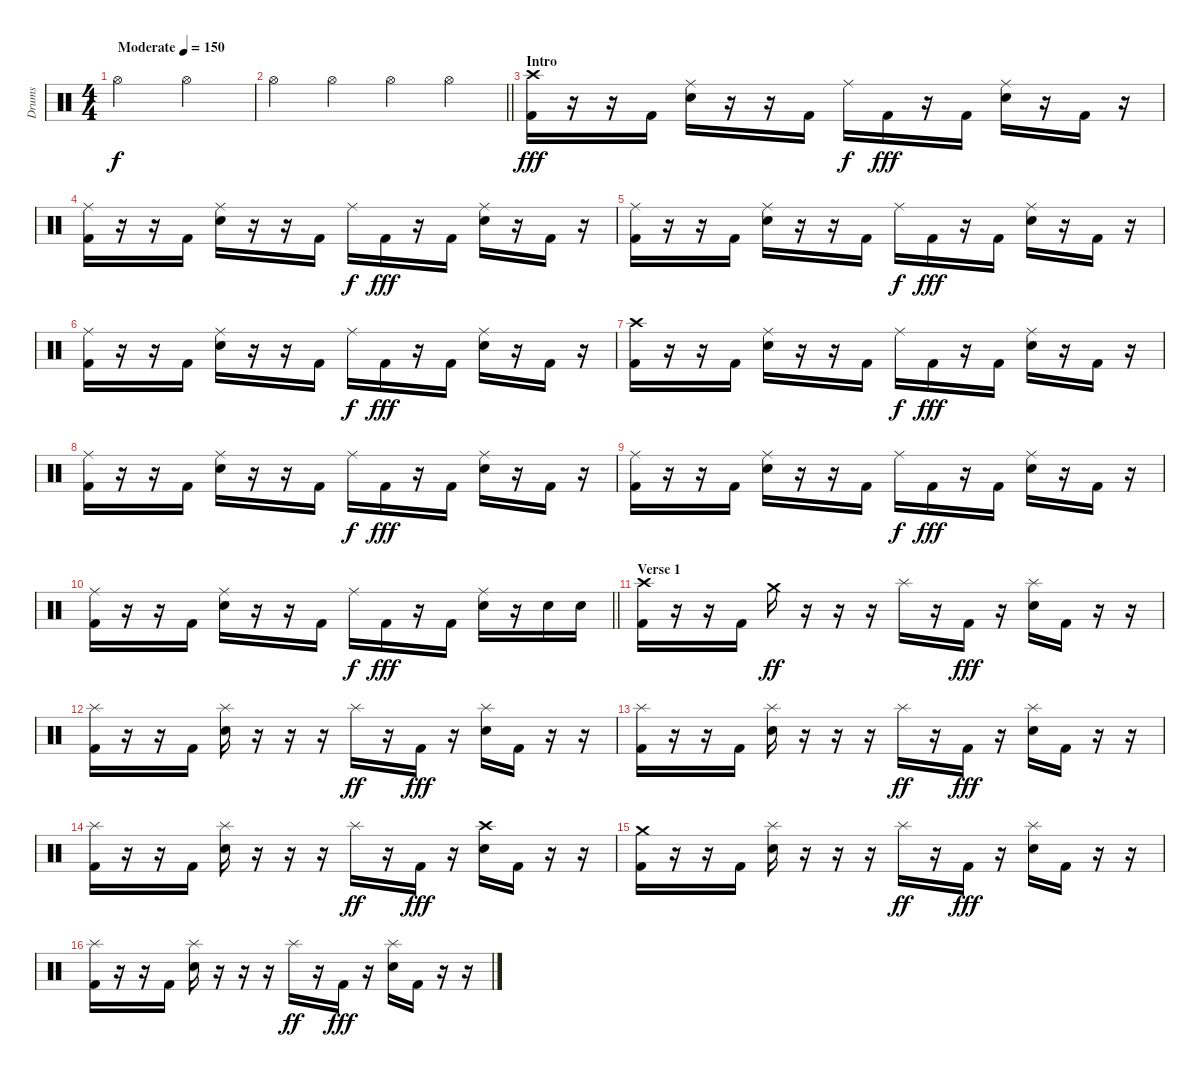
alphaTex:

\track ("Drums" "Drums") {instrument percussion}
\staff {score}
\articulation defaults
\ts (4 4)
\tempo (150 "Moderate")
\clef neutral
\ks c "Hi-Hat (open)".2{dy f} "Hi-Hat (open)".2
|
\barLineRight lightlight "Hi-Hat (open)".4 "Hi-Hat (open)".4 "Hi-Hat (open)".4 "Hi-Hat (open)".4
|
\section ("" "Intro")
("Crash high (hit)" "Kick (hit) 2").16{dy fff} r.16 r.16 "Kick (hit) 2".16 ("Ride (middle)" "Electric Snare (hit)").16 r.16 r.16 "Kick (hit) 2".16 "Ride (middle)".16{dy f} "Kick (hit) 2".16{dy fff} r.16 "Kick (hit) 2".16 ("Ride (middle)" "Electric Snare (hit)").16 r.16 "Kick (hit) 2".16 r.16 |
("Ride (middle)" "Kick (hit) 2").16 r.16 r.16 "Kick (hit) 2".16 ("Ride (middle)" "Electric Snare (hit)").16 r.16 r.16 "Kick (hit) 2".16 "Ride (middle)".16{dy f} "Kick (hit) 2".16{dy fff} r.16 "Kick (hit) 2".16 ("Ride (middle)" "Electric Snare (hit)").16 r.16 "Kick (hit) 2".16 r.16 |
("Ride (middle)" "Kick (hit) 2").16 r.16 r.16 "Kick (hit) 2".16 ("Ride (middle)" "Electric Snare (hit)").16 r.16 r.16 "Kick (hit) 2".16 "Ride (middle)".16{dy f} "Kick (hit) 2".16{dy fff} r.16 "Kick (hit) 2".16 ("Ride (middle)" "Electric Snare (hit)").16 r.16 "Kick (hit) 2".16 r.16 |
("Ride (middle)" "Kick (hit) 2").16 r.16 r.16 "Kick (hit) 2".16 ("Ride (middle)" "Electric Snare (hit)").16 r.16 r.16 "Kick (hit) 2".16 "Ride (middle)".16{dy f} "Kick (hit) 2".16{dy fff} r.16 "Kick (hit) 2".16 ("Ride (middle)" "Electric Snare (hit)").16 r.16 "Kick (hit) 2".16 r.16 |
("Crash high (hit)" "Kick (hit) 2").16 r.16 r.16 "Kick (hit) 2".16 ("Ride (middle)" "Electric Snare (hit)").16 r.16 r.16 "Kick (hit) 2".16 "Ride (middle)".16{dy f} "Kick (hit) 2".16{dy fff} r.16 "Kick (hit) 2".16 ("Ride (middle)" "Electric Snare (hit)").16 r.16 "Kick (hit) 2".16 r.16 |
("Ride (middle)" "Kick (hit) 2").16 r.16 r.16 "Kick (hit) 2".16 ("Ride (middle)" "Electric Snare (hit)").16 r.16 r.16 "Kick (hit) 2".16 "Ride (middle)".16{dy f} "Kick (hit) 2".16{dy fff} r.16 "Kick (hit) 2".16 ("Ride (middle)" "Electric Snare (hit)").16 r.16 "Kick (hit) 2".16 r.16 |
("Ride (middle)" "Kick (hit) 2").16 r.16 r.16 "Kick (hit) 2".16 ("Ride (middle)" "Electric Snare (hit)").16 r.16 r.16 "Kick (hit) 2".16 "Ride (middle)".16{dy f} "Kick (hit) 2".16{dy fff} r.16 "Kick (hit) 2".16 ("Ride (middle)" "Electric Snare (hit)").16 r.16 "Kick (hit) 2".16 r.16 |
\barLineRight lightlight
("Ride (middle)" "Kick (hit) 2").16 r.16 r.16 "Kick (hit) 2".16 ("Ride (middle)" "Electric Snare (hit)").16 r.16 r.16 "Kick (hit) 2".16 "Ride (middle)".16{dy f} "Kick (hit) 2".16{dy fff} r.16 "Kick (hit) 2".16 ("Ride (middle)" "Electric Snare (hit)").16 r.16 "Electric Snare (hit)".16 "Electric Snare (hit)".16 |
\section ("" "Verse 1")
("Crash high (hit)" "Kick (hit) 2").16 r.16 r.16 "Kick (hit) 2".16 "Crash medium (hit)".16{dy ff} r.16 r.16 r.16 "Splash (hit)".16 r.16 "Kick (hit) 2".16{dy fff} r.16 ("Splash (hit)" "Electric Snare (hit)").16 "Kick (hit) 2".16 r.16 r.16 |
("Splash (hit)" "Kick (hit) 2").16 r.16 r.16 "Kick (hit) 2".16 ("Splash (hit)" "Electric Snare (hit)").16 r.16 r.16 r.16 "Splash (hit)".16{dy ff} r.16 "Kick (hit) 2".16{dy fff} r.16 ("Splash (hit)" "Electric Snare (hit)").16 "Kick (hit) 2".16 r.16 r.16 |
("Splash (hit)" "Kick (hit) 2").16 r.16 r.16 "Kick (hit) 2".16 ("Splash (hit)" "Electric Snare (hit)").16 r.16 r.16 r.16 "Splash (hit)".16{dy ff} r.16 "Kick (hit) 2".16{dy fff} r.16 ("Splash (hit)" "Electric Snare (hit)").16 "Kick (hit) 2".16 r.16 r.16 |
("Splash (hit)" "Kick (hit) 2").16 r.16 r.16 "Kick (hit) 2".16 ("Splash (hit)" "Electric Snare (hit)").16 r.16 r.16 r.16 "Splash (hit)".16{dy ff} r.16 "Kick (hit) 2".16{dy fff} r.16 ("Crash high (hit)" "Electric Snare (hit)").16 "Kick (hit) 2".16 r.16 r.16 |
("Crash medium (hit)" "Kick (hit) 2").16 r.16 r.16 "Kick (hit) 2".16 ("Splash (hit)" "Electric Snare (hit)").16 r.16 r.16 r.16 "Splash (hit)".16{dy ff} r.16 "Kick (hit) 2".16{dy fff} r.16 ("Splash (hit)" "Electric Snare (hit)").16 "Kick (hit) 2".16 r.16 r.16 |
("Splash (hit)" "Kick (hit) 2").16 r.16 r.16 "Kick (hit) 2".16 ("Splash (hit)" "Electric Snare (hit)").16 r.16 r.16 r.16 "Splash (hit)".16{dy ff} r.16 "Kick (hit) 2".16{dy fff} r.16 ("Splash (hit)" "Electric Snare (hit)").16 "Kick (hit) 2".16 r.16 r.16
